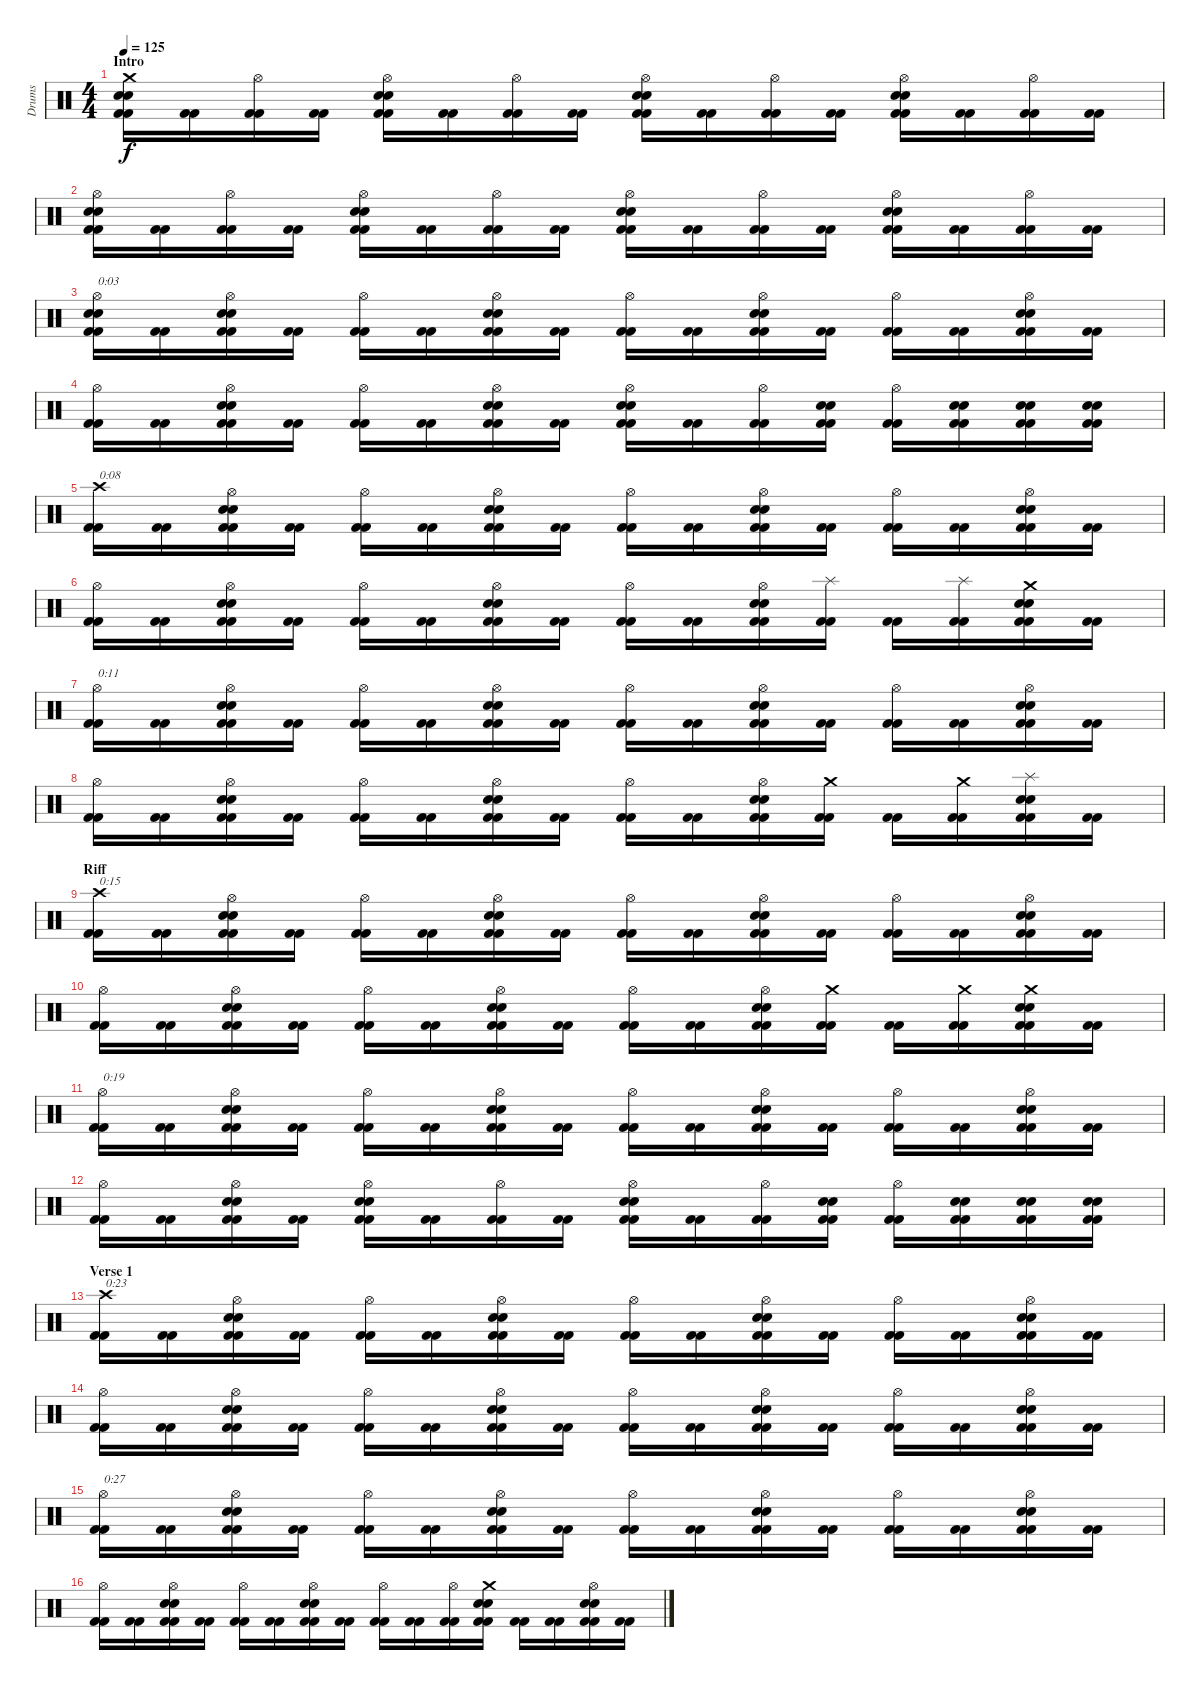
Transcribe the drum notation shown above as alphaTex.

\track ("Drums" "Drums") {instrument percussion}
\staff {score}
\articulation defaults
\ts (4 4)
\section ("" "Intro")
\tempo 125
\clef neutral
\ks c
("Crash medium (hit)" "Snare (hit) 2" "Snare (hit) 2" "Kick (hit) 2" "Kick (hit) 2").16{dy f} ("Kick (hit) 2" "Kick (hit) 2").16 ("Hi-Hat (open)" "Kick (hit) 2" "Kick (hit) 2").16 ("Kick (hit) 2" "Kick (hit) 2").16 ("Hi-Hat (open)" "Snare (hit) 2" "Snare (hit) 2" "Kick (hit) 2" "Kick (hit) 2").16 ("Kick (hit) 2" "Kick (hit) 2").16 ("Hi-Hat (open)" "Kick (hit) 2" "Kick (hit) 2").16 ("Kick (hit) 2" "Kick (hit) 2").16 ("Hi-Hat (open)" "Snare (hit) 2" "Snare (hit) 2" "Kick (hit) 2" "Kick (hit) 2").16 ("Kick (hit) 2" "Kick (hit) 2").16 ("Hi-Hat (open)" "Kick (hit) 2" "Kick (hit) 2").16 ("Kick (hit) 2" "Kick (hit) 2").16 ("Hi-Hat (open)" "Snare (hit) 2" "Snare (hit) 2" "Kick (hit) 2" "Kick (hit) 2").16 ("Kick (hit) 2" "Kick (hit) 2").16 ("Hi-Hat (open)" "Kick (hit) 2" "Kick (hit) 2").16 ("Kick (hit) 2" "Kick (hit) 2").16 |
("Hi-Hat (open)" "Snare (hit) 2" "Snare (hit) 2" "Kick (hit) 2" "Kick (hit) 2").16 ("Kick (hit) 2" "Kick (hit) 2").16 ("Hi-Hat (open)" "Kick (hit) 2" "Kick (hit) 2").16 ("Kick (hit) 2" "Kick (hit) 2").16 ("Hi-Hat (open)" "Snare (hit) 2" "Snare (hit) 2" "Kick (hit) 2" "Kick (hit) 2").16 ("Kick (hit) 2" "Kick (hit) 2").16 ("Hi-Hat (open)" "Kick (hit) 2" "Kick (hit) 2").16 ("Kick (hit) 2" "Kick (hit) 2").16 ("Hi-Hat (open)" "Snare (hit) 2" "Snare (hit) 2" "Kick (hit) 2" "Kick (hit) 2").16 ("Kick (hit) 2" "Kick (hit) 2").16 ("Hi-Hat (open)" "Kick (hit) 2" "Kick (hit) 2").16 ("Kick (hit) 2" "Kick (hit) 2").16 ("Hi-Hat (open)" "Snare (hit) 2" "Snare (hit) 2" "Kick (hit) 2" "Kick (hit) 2").16 ("Kick (hit) 2" "Kick (hit) 2").16 ("Hi-Hat (open)" "Kick (hit) 2" "Kick (hit) 2").16 ("Kick (hit) 2" "Kick (hit) 2").16 |
("Hi-Hat (open)" "Snare (hit) 2" "Snare (hit) 2" "Kick (hit) 2" "Kick (hit) 2").16{txt "0:03"} ("Kick (hit) 2" "Kick (hit) 2").16 ("Hi-Hat (open)" "Snare (hit) 2" "Snare (hit) 2" "Kick (hit) 2" "Kick (hit) 2").16 ("Kick (hit) 2" "Kick (hit) 2").16 ("Hi-Hat (open)" "Kick (hit) 2" "Kick (hit) 2").16 ("Kick (hit) 2" "Kick (hit) 2").16 ("Hi-Hat (open)" "Snare (hit) 2" "Snare (hit) 2" "Kick (hit) 2" "Kick (hit) 2").16 ("Kick (hit) 2" "Kick (hit) 2").16 ("Hi-Hat (open)" "Kick (hit) 2" "Kick (hit) 2").16 ("Kick (hit) 2" "Kick (hit) 2").16 ("Hi-Hat (open)" "Snare (hit) 2" "Snare (hit) 2" "Kick (hit) 2" "Kick (hit) 2").16 ("Kick (hit) 2" "Kick (hit) 2").16 ("Hi-Hat (open)" "Kick (hit) 2" "Kick (hit) 2").16 ("Kick (hit) 2" "Kick (hit) 2").16 ("Hi-Hat (open)" "Snare (hit) 2" "Snare (hit) 2" "Kick (hit) 2" "Kick (hit) 2").16 ("Kick (hit) 2" "Kick (hit) 2").16 |
("Hi-Hat (open)" "Kick (hit) 2" "Kick (hit) 2").16 ("Kick (hit) 2" "Kick (hit) 2").16 ("Hi-Hat (open)" "Snare (hit) 2" "Snare (hit) 2" "Kick (hit) 2" "Kick (hit) 2").16 ("Kick (hit) 2" "Kick (hit) 2").16 ("Hi-Hat (open)" "Kick (hit) 2" "Kick (hit) 2").16 ("Kick (hit) 2" "Kick (hit) 2").16 ("Hi-Hat (open)" "Snare (hit) 2" "Snare (hit) 2" "Kick (hit) 2" "Kick (hit) 2").16 ("Kick (hit) 2" "Kick (hit) 2").16 ("Hi-Hat (open)" "Snare (hit) 2" "Snare (hit) 2" "Kick (hit) 2" "Kick (hit) 2").16 ("Kick (hit) 2" "Kick (hit) 2").16 ("Hi-Hat (open)" "Kick (hit) 2" "Kick (hit) 2").16 ("Snare (hit) 2" "Snare (hit) 2" "Kick (hit) 2" "Kick (hit) 2").16 ("Hi-Hat (open)" "Kick (hit) 2" "Kick (hit) 2").16 ("Snare (hit) 2" "Snare (hit) 2" "Kick (hit) 2" "Kick (hit) 2").16 ("Snare (hit) 2" "Snare (hit) 2" "Kick (hit) 2" "Kick (hit) 2").16 ("Snare (hit) 2" "Snare (hit) 2" "Kick (hit) 2" "Kick (hit) 2").16 |
("Crash high (hit)" "Kick (hit) 2" "Kick (hit) 2").16{txt "0:08"} ("Kick (hit) 2" "Kick (hit) 2").16 ("Hi-Hat (open)" "Snare (hit) 2" "Snare (hit) 2" "Kick (hit) 2" "Kick (hit) 2").16 ("Kick (hit) 2" "Kick (hit) 2").16 ("Hi-Hat (open)" "Kick (hit) 2" "Kick (hit) 2").16 ("Kick (hit) 2" "Kick (hit) 2").16 ("Hi-Hat (open)" "Snare (hit) 2" "Snare (hit) 2" "Kick (hit) 2" "Kick (hit) 2").16 ("Kick (hit) 2" "Kick (hit) 2").16 ("Hi-Hat (open)" "Kick (hit) 2" "Kick (hit) 2").16 ("Kick (hit) 2" "Kick (hit) 2").16 ("Hi-Hat (open)" "Snare (hit) 2" "Snare (hit) 2" "Kick (hit) 2" "Kick (hit) 2").16 ("Kick (hit) 2" "Kick (hit) 2").16 ("Hi-Hat (open)" "Kick (hit) 2" "Kick (hit) 2").16 ("Kick (hit) 2" "Kick (hit) 2").16 ("Hi-Hat (open)" "Snare (hit) 2" "Snare (hit) 2" "Kick (hit) 2" "Kick (hit) 2").16 ("Kick (hit) 2" "Kick (hit) 2").16 |
("Hi-Hat (open)" "Kick (hit) 2" "Kick (hit) 2").16 ("Kick (hit) 2" "Kick (hit) 2").16 ("Hi-Hat (open)" "Snare (hit) 2" "Snare (hit) 2" "Kick (hit) 2" "Kick (hit) 2").16 ("Kick (hit) 2" "Kick (hit) 2").16 ("Hi-Hat (open)" "Kick (hit) 2" "Kick (hit) 2").16 ("Kick (hit) 2" "Kick (hit) 2").16 ("Hi-Hat (open)" "Snare (hit) 2" "Snare (hit) 2" "Kick (hit) 2" "Kick (hit) 2").16 ("Kick (hit) 2" "Kick (hit) 2").16 ("Hi-Hat (open)" "Kick (hit) 2" "Kick (hit) 2").16 ("Kick (hit) 2" "Kick (hit) 2").16 ("Hi-Hat (open)" "Snare (hit) 2" "Snare (hit) 2" "Kick (hit) 2" "Kick (hit) 2").16 ("Splash (hit)" "Kick (hit) 2" "Kick (hit) 2").16 ("Kick (hit) 2" "Kick (hit) 2").16 ("Splash (hit)" "Kick (hit) 2" "Kick (hit) 2").16 ("Crash medium (hit)" "Snare (hit) 2" "Snare (hit) 2" "Kick (hit) 2" "Kick (hit) 2").16 ("Kick (hit) 2" "Kick (hit) 2").16 |
("Hi-Hat (open)" "Kick (hit) 2" "Kick (hit) 2").16{txt "0:11"} ("Kick (hit) 2" "Kick (hit) 2").16 ("Hi-Hat (open)" "Snare (hit) 2" "Snare (hit) 2" "Kick (hit) 2" "Kick (hit) 2").16 ("Kick (hit) 2" "Kick (hit) 2").16 ("Hi-Hat (open)" "Kick (hit) 2" "Kick (hit) 2").16 ("Kick (hit) 2" "Kick (hit) 2").16 ("Hi-Hat (open)" "Snare (hit) 2" "Snare (hit) 2" "Kick (hit) 2" "Kick (hit) 2").16 ("Kick (hit) 2" "Kick (hit) 2").16 ("Hi-Hat (open)" "Kick (hit) 2" "Kick (hit) 2").16 ("Kick (hit) 2" "Kick (hit) 2").16 ("Hi-Hat (open)" "Snare (hit) 2" "Snare (hit) 2" "Kick (hit) 2" "Kick (hit) 2").16 ("Kick (hit) 2" "Kick (hit) 2").16 ("Hi-Hat (open)" "Kick (hit) 2" "Kick (hit) 2").16 ("Kick (hit) 2" "Kick (hit) 2").16 ("Hi-Hat (open)" "Snare (hit) 2" "Snare (hit) 2" "Kick (hit) 2" "Kick (hit) 2").16 ("Kick (hit) 2" "Kick (hit) 2").16 |
("Hi-Hat (open)" "Kick (hit) 2" "Kick (hit) 2").16 ("Kick (hit) 2" "Kick (hit) 2").16 ("Hi-Hat (open)" "Snare (hit) 2" "Snare (hit) 2" "Kick (hit) 2" "Kick (hit) 2").16 ("Kick (hit) 2" "Kick (hit) 2").16 ("Hi-Hat (open)" "Kick (hit) 2" "Kick (hit) 2").16 ("Kick (hit) 2" "Kick (hit) 2").16 ("Hi-Hat (open)" "Snare (hit) 2" "Snare (hit) 2" "Kick (hit) 2" "Kick (hit) 2").16 ("Kick (hit) 2" "Kick (hit) 2").16 ("Hi-Hat (open)" "Kick (hit) 2" "Kick (hit) 2").16 ("Kick (hit) 2" "Kick (hit) 2").16 ("Hi-Hat (open)" "Snare (hit) 2" "Snare (hit) 2" "Kick (hit) 2" "Kick (hit) 2").16 ("Crash medium (hit)" "Kick (hit) 2" "Kick (hit) 2").16 ("Kick (hit) 2" "Kick (hit) 2").16 ("Crash medium (hit)" "Kick (hit) 2" "Kick (hit) 2").16 ("Splash (hit)" "Snare (hit) 2" "Snare (hit) 2" "Kick (hit) 2" "Kick (hit) 2").16 ("Kick (hit) 2" "Kick (hit) 2").16 |
\section ("" "Riff")
("Crash high (hit)" "Kick (hit) 2" "Kick (hit) 2").16{txt "0:15"} ("Kick (hit) 2" "Kick (hit) 2").16 ("Hi-Hat (open)" "Snare (hit) 2" "Snare (hit) 2" "Kick (hit) 2" "Kick (hit) 2").16 ("Kick (hit) 2" "Kick (hit) 2").16 ("Hi-Hat (open)" "Kick (hit) 2" "Kick (hit) 2").16 ("Kick (hit) 2" "Kick (hit) 2").16 ("Hi-Hat (open)" "Snare (hit) 2" "Snare (hit) 2" "Kick (hit) 2" "Kick (hit) 2").16 ("Kick (hit) 2" "Kick (hit) 2").16 ("Hi-Hat (open)" "Kick (hit) 2" "Kick (hit) 2").16 ("Kick (hit) 2" "Kick (hit) 2").16 ("Hi-Hat (open)" "Snare (hit) 2" "Snare (hit) 2" "Kick (hit) 2" "Kick (hit) 2").16 ("Kick (hit) 2" "Kick (hit) 2").16 ("Hi-Hat (open)" "Kick (hit) 2" "Kick (hit) 2").16 ("Kick (hit) 2" "Kick (hit) 2").16 ("Hi-Hat (open)" "Snare (hit) 2" "Snare (hit) 2" "Kick (hit) 2" "Kick (hit) 2").16 ("Kick (hit) 2" "Kick (hit) 2").16 |
("Hi-Hat (open)" "Kick (hit) 2" "Kick (hit) 2").16 ("Kick (hit) 2" "Kick (hit) 2").16 ("Hi-Hat (open)" "Snare (hit) 2" "Snare (hit) 2" "Kick (hit) 2" "Kick (hit) 2").16 ("Kick (hit) 2" "Kick (hit) 2").16 ("Hi-Hat (open)" "Kick (hit) 2" "Kick (hit) 2").16 ("Kick (hit) 2" "Kick (hit) 2").16 ("Hi-Hat (open)" "Snare (hit) 2" "Snare (hit) 2" "Kick (hit) 2" "Kick (hit) 2").16 ("Kick (hit) 2" "Kick (hit) 2").16 ("Hi-Hat (open)" "Kick (hit) 2" "Kick (hit) 2").16 ("Kick (hit) 2" "Kick (hit) 2").16 ("Hi-Hat (open)" "Snare (hit) 2" "Snare (hit) 2" "Kick (hit) 2" "Kick (hit) 2").16 ("Crash medium (hit)" "Kick (hit) 2" "Kick (hit) 2").16 ("Kick (hit) 2" "Kick (hit) 2").16 ("Crash medium (hit)" "Kick (hit) 2" "Kick (hit) 2").16 ("Crash medium (hit)" "Snare (hit) 2" "Snare (hit) 2" "Kick (hit) 2" "Kick (hit) 2").16 ("Kick (hit) 2" "Kick (hit) 2").16 |
("Hi-Hat (open)" "Kick (hit) 2" "Kick (hit) 2").16{txt "0:19"} ("Kick (hit) 2" "Kick (hit) 2").16 ("Hi-Hat (open)" "Snare (hit) 2" "Snare (hit) 2" "Kick (hit) 2" "Kick (hit) 2").16 ("Kick (hit) 2" "Kick (hit) 2").16 ("Hi-Hat (open)" "Kick (hit) 2" "Kick (hit) 2").16 ("Kick (hit) 2" "Kick (hit) 2").16 ("Hi-Hat (open)" "Snare (hit) 2" "Snare (hit) 2" "Kick (hit) 2" "Kick (hit) 2").16 ("Kick (hit) 2" "Kick (hit) 2").16 ("Hi-Hat (open)" "Kick (hit) 2" "Kick (hit) 2").16 ("Kick (hit) 2" "Kick (hit) 2").16 ("Hi-Hat (open)" "Snare (hit) 2" "Snare (hit) 2" "Kick (hit) 2" "Kick (hit) 2").16 ("Kick (hit) 2" "Kick (hit) 2").16 ("Hi-Hat (open)" "Kick (hit) 2" "Kick (hit) 2").16 ("Kick (hit) 2" "Kick (hit) 2").16 ("Hi-Hat (open)" "Snare (hit) 2" "Snare (hit) 2" "Kick (hit) 2" "Kick (hit) 2").16 ("Kick (hit) 2" "Kick (hit) 2").16 |
("Hi-Hat (open)" "Kick (hit) 2" "Kick (hit) 2").16 ("Kick (hit) 2" "Kick (hit) 2").16 ("Hi-Hat (open)" "Snare (hit) 2" "Snare (hit) 2" "Kick (hit) 2" "Kick (hit) 2").16 ("Kick (hit) 2" "Kick (hit) 2").16 ("Hi-Hat (open)" "Snare (hit) 2" "Snare (hit) 2" "Kick (hit) 2" "Kick (hit) 2").16 ("Kick (hit) 2" "Kick (hit) 2").16 ("Hi-Hat (open)" "Kick (hit) 2" "Kick (hit) 2").16 ("Kick (hit) 2" "Kick (hit) 2").16 ("Hi-Hat (open)" "Snare (hit) 2" "Snare (hit) 2" "Kick (hit) 2" "Kick (hit) 2").16 ("Kick (hit) 2" "Kick (hit) 2").16 ("Hi-Hat (open)" "Kick (hit) 2" "Kick (hit) 2").16 ("Snare (hit) 2" "Snare (hit) 2" "Kick (hit) 2" "Kick (hit) 2").16 ("Hi-Hat (open)" "Kick (hit) 2" "Kick (hit) 2").16 ("Snare (hit) 2" "Snare (hit) 2" "Kick (hit) 2" "Kick (hit) 2").16 ("Snare (hit) 2" "Snare (hit) 2" "Kick (hit) 2" "Kick (hit) 2").16 ("Snare (hit) 2" "Snare (hit) 2" "Kick (hit) 2" "Kick (hit) 2").16 |
\section ("" "Verse 1")
("Crash high (hit)" "Kick (hit) 2" "Kick (hit) 2").16{txt "0:23"} ("Kick (hit) 2" "Kick (hit) 2").16 ("Hi-Hat (open)" "Snare (hit) 2" "Snare (hit) 2" "Kick (hit) 2" "Kick (hit) 2").16 ("Kick (hit) 2" "Kick (hit) 2").16 ("Hi-Hat (open)" "Kick (hit) 2" "Kick (hit) 2").16 ("Kick (hit) 2" "Kick (hit) 2").16 ("Hi-Hat (open)" "Snare (hit) 2" "Snare (hit) 2" "Kick (hit) 2" "Kick (hit) 2").16 ("Kick (hit) 2" "Kick (hit) 2").16 ("Hi-Hat (open)" "Kick (hit) 2" "Kick (hit) 2").16 ("Kick (hit) 2" "Kick (hit) 2").16 ("Hi-Hat (open)" "Snare (hit) 2" "Snare (hit) 2" "Kick (hit) 2" "Kick (hit) 2").16 ("Kick (hit) 2" "Kick (hit) 2").16 ("Hi-Hat (open)" "Kick (hit) 2" "Kick (hit) 2").16 ("Kick (hit) 2" "Kick (hit) 2").16 ("Hi-Hat (open)" "Snare (hit) 2" "Snare (hit) 2" "Kick (hit) 2" "Kick (hit) 2").16 ("Kick (hit) 2" "Kick (hit) 2").16 |
("Hi-Hat (open)" "Kick (hit) 2" "Kick (hit) 2").16 ("Kick (hit) 2" "Kick (hit) 2").16 ("Hi-Hat (open)" "Snare (hit) 2" "Snare (hit) 2" "Kick (hit) 2" "Kick (hit) 2").16 ("Kick (hit) 2" "Kick (hit) 2").16 ("Hi-Hat (open)" "Kick (hit) 2" "Kick (hit) 2").16 ("Kick (hit) 2" "Kick (hit) 2").16 ("Hi-Hat (open)" "Snare (hit) 2" "Snare (hit) 2" "Kick (hit) 2" "Kick (hit) 2").16 ("Kick (hit) 2" "Kick (hit) 2").16 ("Hi-Hat (open)" "Kick (hit) 2" "Kick (hit) 2").16 ("Kick (hit) 2" "Kick (hit) 2").16 ("Hi-Hat (open)" "Snare (hit) 2" "Snare (hit) 2" "Kick (hit) 2" "Kick (hit) 2").16 ("Kick (hit) 2" "Kick (hit) 2").16 ("Hi-Hat (open)" "Kick (hit) 2" "Kick (hit) 2").16 ("Kick (hit) 2" "Kick (hit) 2").16 ("Hi-Hat (open)" "Snare (hit) 2" "Snare (hit) 2" "Kick (hit) 2" "Kick (hit) 2").16 ("Kick (hit) 2" "Kick (hit) 2").16 |
("Hi-Hat (open)" "Kick (hit) 2" "Kick (hit) 2").16{txt "0:27"} ("Kick (hit) 2" "Kick (hit) 2").16 ("Hi-Hat (open)" "Snare (hit) 2" "Snare (hit) 2" "Kick (hit) 2" "Kick (hit) 2").16 ("Kick (hit) 2" "Kick (hit) 2").16 ("Hi-Hat (open)" "Kick (hit) 2" "Kick (hit) 2").16 ("Kick (hit) 2" "Kick (hit) 2").16 ("Hi-Hat (open)" "Snare (hit) 2" "Snare (hit) 2" "Kick (hit) 2" "Kick (hit) 2").16 ("Kick (hit) 2" "Kick (hit) 2").16 ("Hi-Hat (open)" "Kick (hit) 2" "Kick (hit) 2").16 ("Kick (hit) 2" "Kick (hit) 2").16 ("Hi-Hat (open)" "Snare (hit) 2" "Snare (hit) 2" "Kick (hit) 2" "Kick (hit) 2").16 ("Kick (hit) 2" "Kick (hit) 2").16 ("Hi-Hat (open)" "Kick (hit) 2" "Kick (hit) 2").16 ("Kick (hit) 2" "Kick (hit) 2").16 ("Hi-Hat (open)" "Snare (hit) 2" "Snare (hit) 2" "Kick (hit) 2" "Kick (hit) 2").16 ("Kick (hit) 2" "Kick (hit) 2").16 |
("Hi-Hat (open)" "Kick (hit) 2" "Kick (hit) 2").16 ("Kick (hit) 2" "Kick (hit) 2").16 ("Hi-Hat (open)" "Snare (hit) 2" "Snare (hit) 2" "Kick (hit) 2" "Kick (hit) 2").16 ("Kick (hit) 2" "Kick (hit) 2").16 ("Hi-Hat (open)" "Kick (hit) 2" "Kick (hit) 2").16 ("Kick (hit) 2" "Kick (hit) 2").16 ("Hi-Hat (open)" "Snare (hit) 2" "Snare (hit) 2" "Kick (hit) 2" "Kick (hit) 2").16 ("Kick (hit) 2" "Kick (hit) 2").16 ("Hi-Hat (open)" "Kick (hit) 2" "Kick (hit) 2").16 ("Kick (hit) 2" "Kick (hit) 2").16 ("Hi-Hat (open)" "Kick (hit) 2" "Kick (hit) 2").16 ("Crash medium (hit)" "Snare (hit) 2" "Snare (hit) 2" "Kick (hit) 2" "Kick (hit) 2").16 ("Kick (hit) 2" "Kick (hit) 2").16 ("Kick (hit) 2" "Kick (hit) 2").16 ("Hi-Hat (open)" "Snare (hit) 2" "Snare (hit) 2" "Kick (hit) 2" "Kick (hit) 2").16 ("Kick (hit) 2" "Kick (hit) 2").16
